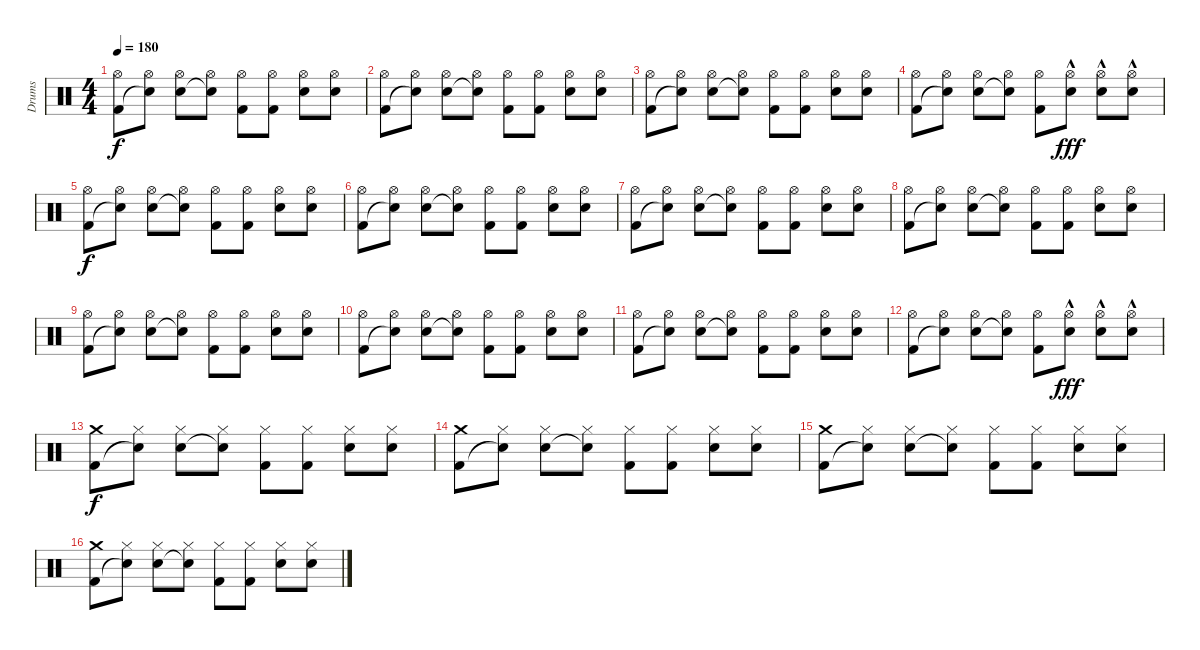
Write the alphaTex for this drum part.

\track ("Drums" "Drums") {instrument percussion}
\staff {score}
\articulation defaults
\ts (4 4)
\tempo 180
\clef neutral
\ks c
("Hi-Hat (open)" "Kick (hit) 2").8{dy f} ("Hi-Hat (open)" "Snare (hit)"{t}).8 ("Hi-Hat (open)" "Electric Snare (hit)").8 ("Hi-Hat (open)" "Snare (hit)"{t}).8 ("Hi-Hat (open)" "Kick (hit) 2").8 ("Hi-Hat (open)" "Kick (hit) 2").8 ("Hi-Hat (open)" "Electric Snare (hit)").8 ("Hi-Hat (open)" "Electric Snare (hit)").8 |
("Hi-Hat (open)" "Kick (hit) 2").8 ("Hi-Hat (open)" "Snare (hit)"{t}).8 ("Hi-Hat (open)" "Electric Snare (hit)").8 ("Hi-Hat (open)" "Snare (hit)"{t}).8 ("Hi-Hat (open)" "Kick (hit) 2").8 ("Hi-Hat (open)" "Kick (hit) 2").8 ("Hi-Hat (open)" "Electric Snare (hit)").8 ("Hi-Hat (open)" "Electric Snare (hit)").8 |
("Hi-Hat (open)" "Kick (hit) 2").8 ("Hi-Hat (open)" "Snare (hit)"{t}).8 ("Hi-Hat (open)" "Electric Snare (hit)").8 ("Hi-Hat (open)" "Snare (hit)"{t}).8 ("Hi-Hat (open)" "Kick (hit) 2").8 ("Hi-Hat (open)" "Kick (hit) 2").8 ("Hi-Hat (open)" "Electric Snare (hit)").8 ("Hi-Hat (open)" "Electric Snare (hit)").8 |
("Hi-Hat (open)" "Kick (hit) 2").8 ("Hi-Hat (open)" "Snare (hit)"{t}).8 ("Hi-Hat (open)" "Electric Snare (hit)").8 ("Hi-Hat (open)" "Snare (hit)"{t}).8 ("Hi-Hat (open)" "Kick (hit) 2").8 ("Hi-Hat (open)" "Electric Snare (hit)"{hac}).8{dy fff} ("Hi-Hat (open)" "Electric Snare (hit)"{hac}).8 ("Hi-Hat (open)" "Electric Snare (hit)"{hac}).8 |
("Hi-Hat (open)" "Kick (hit) 2").8{dy f} ("Hi-Hat (open)" "Snare (hit)"{t}).8 ("Hi-Hat (open)" "Electric Snare (hit)").8 ("Hi-Hat (open)" "Snare (hit)"{t}).8 ("Hi-Hat (open)" "Kick (hit) 2").8 ("Hi-Hat (open)" "Kick (hit) 2").8 ("Hi-Hat (open)" "Electric Snare (hit)").8 ("Hi-Hat (open)" "Electric Snare (hit)").8 |
("Hi-Hat (open)" "Kick (hit) 2").8 ("Hi-Hat (open)" "Snare (hit)"{t}).8 ("Hi-Hat (open)" "Electric Snare (hit)").8 ("Hi-Hat (open)" "Snare (hit)"{t}).8 ("Hi-Hat (open)" "Kick (hit) 2").8 ("Hi-Hat (open)" "Kick (hit) 2").8 ("Hi-Hat (open)" "Electric Snare (hit)").8 ("Hi-Hat (open)" "Electric Snare (hit)").8 |
("Hi-Hat (open)" "Kick (hit) 2").8 ("Hi-Hat (open)" "Snare (hit)"{t}).8 ("Hi-Hat (open)" "Electric Snare (hit)").8 ("Hi-Hat (open)" "Snare (hit)"{t}).8 ("Hi-Hat (open)" "Kick (hit) 2").8 ("Hi-Hat (open)" "Kick (hit) 2").8 ("Hi-Hat (open)" "Electric Snare (hit)").8 ("Hi-Hat (open)" "Electric Snare (hit)").8 |
("Hi-Hat (open)" "Kick (hit) 2").8 ("Hi-Hat (open)" "Snare (hit)"{t}).8 ("Hi-Hat (open)" "Electric Snare (hit)").8 ("Hi-Hat (open)" "Snare (hit)"{t}).8 ("Hi-Hat (open)" "Kick (hit) 2").8 ("Hi-Hat (open)" "Kick (hit) 2").8 ("Hi-Hat (open)" "Electric Snare (hit)").8 ("Hi-Hat (open)" "Electric Snare (hit)").8 |
("Hi-Hat (open)" "Kick (hit) 2").8 ("Hi-Hat (open)" "Snare (hit)"{t}).8 ("Hi-Hat (open)" "Electric Snare (hit)").8 ("Hi-Hat (open)" "Snare (hit)"{t}).8 ("Hi-Hat (open)" "Kick (hit) 2").8 ("Hi-Hat (open)" "Kick (hit) 2").8 ("Hi-Hat (open)" "Electric Snare (hit)").8 ("Hi-Hat (open)" "Electric Snare (hit)").8 |
("Hi-Hat (open)" "Kick (hit) 2").8 ("Hi-Hat (open)" "Snare (hit)"{t}).8 ("Hi-Hat (open)" "Electric Snare (hit)").8 ("Hi-Hat (open)" "Snare (hit)"{t}).8 ("Hi-Hat (open)" "Kick (hit) 2").8 ("Hi-Hat (open)" "Kick (hit) 2").8 ("Hi-Hat (open)" "Electric Snare (hit)").8 ("Hi-Hat (open)" "Electric Snare (hit)").8 |
("Hi-Hat (open)" "Kick (hit) 2").8 ("Hi-Hat (open)" "Snare (hit)"{t}).8 ("Hi-Hat (open)" "Electric Snare (hit)").8 ("Hi-Hat (open)" "Snare (hit)"{t}).8 ("Hi-Hat (open)" "Kick (hit) 2").8 ("Hi-Hat (open)" "Kick (hit) 2").8 ("Hi-Hat (open)" "Electric Snare (hit)").8 ("Hi-Hat (open)" "Electric Snare (hit)").8 |
("Hi-Hat (open)" "Kick (hit) 2").8 ("Hi-Hat (open)" "Snare (hit)"{t}).8 ("Hi-Hat (open)" "Electric Snare (hit)").8 ("Hi-Hat (open)" "Snare (hit)"{t}).8 ("Hi-Hat (open)" "Kick (hit) 2").8 ("Hi-Hat (open)" "Electric Snare (hit)"{hac}).8{dy fff} ("Hi-Hat (open)" "Electric Snare (hit)"{hac}).8 ("Hi-Hat (open)" "Electric Snare (hit)"{hac}).8 |
("Crash medium (hit)" "Kick (hit) 2").8{dy f} ("Hi-Hat (closed)" "Snare (hit)"{t}).8 ("Hi-Hat (closed)" "Electric Snare (hit)").8 ("Hi-Hat (closed)" "Snare (hit)"{t}).8 ("Hi-Hat (closed)" "Kick (hit) 2").8 ("Hi-Hat (closed)" "Kick (hit) 2").8 ("Hi-Hat (closed)" "Electric Snare (hit)").8 ("Hi-Hat (closed)" "Electric Snare (hit)").8 |
("Crash medium (hit)" "Kick (hit) 2").8 ("Hi-Hat (closed)" "Snare (hit)"{t}).8 ("Hi-Hat (closed)" "Electric Snare (hit)").8 ("Hi-Hat (closed)" "Snare (hit)"{t}).8 ("Hi-Hat (closed)" "Kick (hit) 2").8 ("Hi-Hat (closed)" "Kick (hit) 2").8 ("Hi-Hat (closed)" "Electric Snare (hit)").8 ("Hi-Hat (closed)" "Electric Snare (hit)").8 |
("Crash medium (hit)" "Kick (hit) 2").8 ("Hi-Hat (closed)" "Snare (hit)"{t}).8 ("Hi-Hat (closed)" "Electric Snare (hit)").8 ("Hi-Hat (closed)" "Snare (hit)"{t}).8 ("Hi-Hat (closed)" "Kick (hit) 2").8 ("Hi-Hat (closed)" "Kick (hit) 2").8 ("Hi-Hat (closed)" "Electric Snare (hit)").8 ("Hi-Hat (closed)" "Electric Snare (hit)").8 |
("Crash medium (hit)" "Kick (hit) 2").8 ("Hi-Hat (closed)" "Snare (hit)"{t}).8 ("Hi-Hat (closed)" "Electric Snare (hit)").8 ("Hi-Hat (closed)" "Snare (hit)"{t}).8 ("Hi-Hat (closed)" "Kick (hit) 2").8 ("Hi-Hat (closed)" "Kick (hit) 2").8 ("Hi-Hat (closed)" "Electric Snare (hit)").8 ("Hi-Hat (closed)" "Electric Snare (hit)").8
